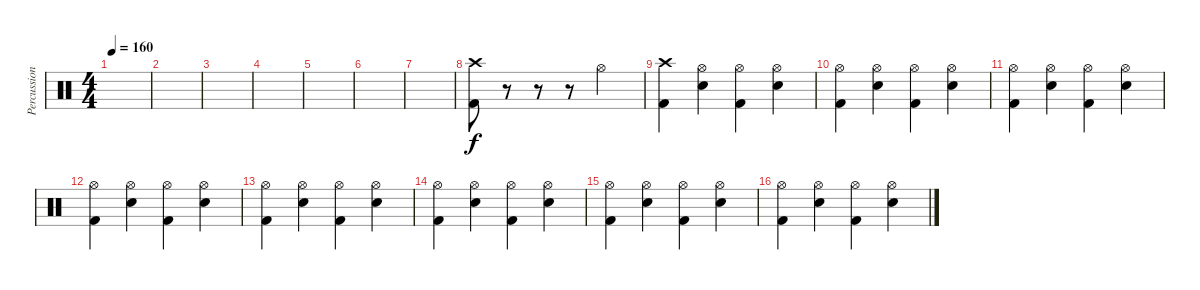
\track ("Percussioni" "Percussion") {instrument percussion}
\staff {score}
\articulation defaults
\ts (4 4)
\tempo 160
\clef neutral
\ks c
|
|
|
|
|
|
|
("Crash high (hit)" "Kick (hit) 2").8 r.8 r.8 r.8 "Hi-Hat (open)".2 |
("Kick (hit) 2" "Crash high (hit)").4 ("Hi-Hat (open)" "Electric Snare (hit)").4 ("Kick (hit) 2" "Hi-Hat (open)").4 ("Hi-Hat (open)" "Electric Snare (hit)").4 |
("Kick (hit) 2" "Hi-Hat (open)").4 ("Hi-Hat (open)" "Electric Snare (hit)").4 ("Kick (hit) 2" "Hi-Hat (open)").4 ("Hi-Hat (open)" "Electric Snare (hit)").4 |
("Kick (hit) 2" "Hi-Hat (open)").4 ("Hi-Hat (open)" "Electric Snare (hit)").4 ("Kick (hit) 2" "Hi-Hat (open)").4 ("Hi-Hat (open)" "Electric Snare (hit)").4 |
("Kick (hit) 2" "Hi-Hat (open)").4 ("Hi-Hat (open)" "Electric Snare (hit)").4 ("Kick (hit) 2" "Hi-Hat (open)").4 ("Hi-Hat (open)" "Electric Snare (hit)").4 |
("Kick (hit) 2" "Hi-Hat (open)").4 ("Hi-Hat (open)" "Electric Snare (hit)").4 ("Kick (hit) 2" "Hi-Hat (open)").4 ("Hi-Hat (open)" "Electric Snare (hit)").4 |
("Kick (hit) 2" "Hi-Hat (open)").4 ("Hi-Hat (open)" "Electric Snare (hit)").4 ("Kick (hit) 2" "Hi-Hat (open)").4 ("Hi-Hat (open)" "Electric Snare (hit)").4 |
("Kick (hit) 2" "Hi-Hat (open)").4 ("Hi-Hat (open)" "Electric Snare (hit)").4 ("Kick (hit) 2" "Hi-Hat (open)").4 ("Hi-Hat (open)" "Electric Snare (hit)").4 |
("Kick (hit) 2" "Hi-Hat (open)").4 ("Hi-Hat (open)" "Electric Snare (hit)").4 ("Kick (hit) 2" "Hi-Hat (open)").4 ("Hi-Hat (open)" "Electric Snare (hit)").4
